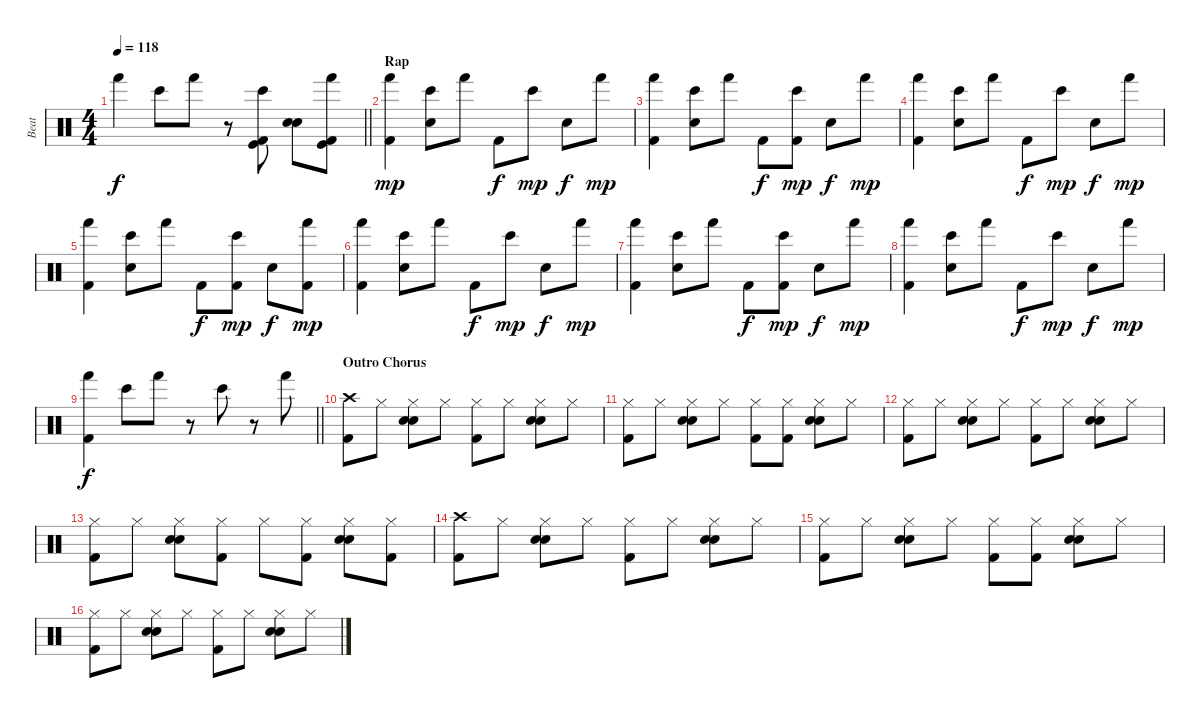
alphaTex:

\track ("Beat" "Beat") {instrument percussion}
\staff {score}
\articulation defaults
\ts (4 4)
\tempo 118
\clef neutral
\barLineRight lightlight
\ks c "Hand (hit)".4{dy f} "Bongo High (hit)".8 "Hand (hit)".8
r.8 ("Bongo High (hit)" "Kick (hit)" "Kick (hit) 2").8 ("Electric Snare (hit)" "Hand Clap (hit)").8 ("Hand (hit)" "Kick (hit)" "Kick (hit) 2").8 |
\section ("" "Rap")
("Hand (hit)" "Kick (hit) 2").4{dy mp} ("Bongo High (hit)" "Electric Snare (hit)").8 "Hand (hit)".8 "Kick (hit) 2".8{dy f} "Bongo High (hit)".8{dy mp} "Electric Snare (hit)".8{dy f} "Hand (hit)".8{dy mp} |
("Hand (hit)" "Kick (hit) 2").4 ("Bongo High (hit)" "Electric Snare (hit)").8 "Hand (hit)".8 "Kick (hit) 2".8{dy f} ("Bongo High (hit)" "Kick (hit) 2").8{dy mp} "Electric Snare (hit)".8{dy f} "Hand (hit)".8{dy mp} |
("Hand (hit)" "Kick (hit) 2").4 ("Bongo High (hit)" "Electric Snare (hit)").8 "Hand (hit)".8 "Kick (hit) 2".8{dy f} "Bongo High (hit)".8{dy mp} "Electric Snare (hit)".8{dy f} "Hand (hit)".8{dy mp} |
("Hand (hit)" "Kick (hit) 2").4 ("Bongo High (hit)" "Electric Snare (hit)").8 "Hand (hit)".8 "Kick (hit) 2".8{dy f} ("Bongo High (hit)" "Kick (hit) 2").8{dy mp} "Electric Snare (hit)".8{dy f} ("Hand (hit)" "Kick (hit) 2").8{dy mp} |
("Hand (hit)" "Kick (hit) 2").4 ("Bongo High (hit)" "Electric Snare (hit)").8 "Hand (hit)".8 "Kick (hit) 2".8{dy f} "Bongo High (hit)".8{dy mp} "Electric Snare (hit)".8{dy f} "Hand (hit)".8{dy mp} |
("Hand (hit)" "Kick (hit) 2").4 ("Bongo High (hit)" "Electric Snare (hit)").8 "Hand (hit)".8 "Kick (hit) 2".8{dy f} ("Bongo High (hit)" "Kick (hit) 2").8{dy mp} "Electric Snare (hit)".8{dy f} "Hand (hit)".8{dy mp} |
("Hand (hit)" "Kick (hit) 2").4 ("Bongo High (hit)" "Electric Snare (hit)").8 "Hand (hit)".8 "Kick (hit) 2".8{dy f} "Bongo High (hit)".8{dy mp} "Electric Snare (hit)".8{dy f} "Hand (hit)".8{dy mp} |
\barLineRight lightlight
("Hand (hit)" "Kick (hit) 2").4{dy f} "Bongo High (hit)".8 "Hand (hit)".8 r.8 "Bongo High (hit)".8 r.8 "Hand (hit)".8 |
\section ("" "Outro Chorus")
("Crash high (hit)" "Kick (hit) 2").8 "Hi-Hat (closed)".8 ("Hi-Hat (closed)" "Electric Snare (hit)" "Hand Clap (hit)").8 "Hi-Hat (closed)".8 ("Hi-Hat (closed)" "Kick (hit) 2").8 "Hi-Hat (closed)".8 ("Hi-Hat (closed)" "Electric Snare (hit)" "Hand Clap (hit)").8 "Hi-Hat (closed)".8 |
("Hi-Hat (closed)" "Kick (hit) 2").8 "Hi-Hat (closed)".8 ("Hi-Hat (closed)" "Electric Snare (hit)" "Hand Clap (hit)").8 "Hi-Hat (closed)".8 ("Hi-Hat (closed)" "Kick (hit) 2").8 ("Hi-Hat (closed)" "Kick (hit) 2").8 ("Hi-Hat (closed)" "Electric Snare (hit)" "Hand Clap (hit)").8 "Hi-Hat (closed)".8 |
("Hi-Hat (closed)" "Kick (hit) 2").8 "Hi-Hat (closed)".8 ("Hi-Hat (closed)" "Electric Snare (hit)" "Hand Clap (hit)").8 "Hi-Hat (closed)".8 ("Hi-Hat (closed)" "Kick (hit) 2").8 "Hi-Hat (closed)".8 ("Hi-Hat (closed)" "Electric Snare (hit)" "Hand Clap (hit)").8 "Hi-Hat (closed)".8 |
("Hi-Hat (closed)" "Kick (hit) 2").8 "Hi-Hat (closed)".8 ("Hi-Hat (closed)" "Electric Snare (hit)" "Hand Clap (hit)").8 ("Hi-Hat (closed)" "Kick (hit) 2").8 "Hi-Hat (closed)".8 ("Hi-Hat (closed)" "Kick (hit) 2").8 ("Hi-Hat (closed)" "Electric Snare (hit)" "Hand Clap (hit)").8 ("Hi-Hat (closed)" "Kick (hit) 2").8 |
("Crash high (hit)" "Kick (hit) 2").8 "Hi-Hat (closed)".8 ("Hi-Hat (closed)" "Electric Snare (hit)" "Hand Clap (hit)").8 "Hi-Hat (closed)".8 ("Hi-Hat (closed)" "Kick (hit) 2").8 "Hi-Hat (closed)".8 ("Hi-Hat (closed)" "Electric Snare (hit)" "Hand Clap (hit)").8 "Hi-Hat (closed)".8 |
("Hi-Hat (closed)" "Kick (hit) 2").8 "Hi-Hat (closed)".8 ("Hi-Hat (closed)" "Electric Snare (hit)" "Hand Clap (hit)").8 "Hi-Hat (closed)".8 ("Hi-Hat (closed)" "Kick (hit) 2").8 ("Hi-Hat (closed)" "Kick (hit) 2").8 ("Hi-Hat (closed)" "Electric Snare (hit)" "Hand Clap (hit)").8 "Hi-Hat (closed)".8 |
("Hi-Hat (closed)" "Kick (hit) 2").8 "Hi-Hat (closed)".8 ("Hi-Hat (closed)" "Electric Snare (hit)" "Hand Clap (hit)").8 "Hi-Hat (closed)".8 ("Hi-Hat (closed)" "Kick (hit) 2").8 "Hi-Hat (closed)".8 ("Hi-Hat (closed)" "Electric Snare (hit)" "Hand Clap (hit)").8 "Hi-Hat (closed)".8
